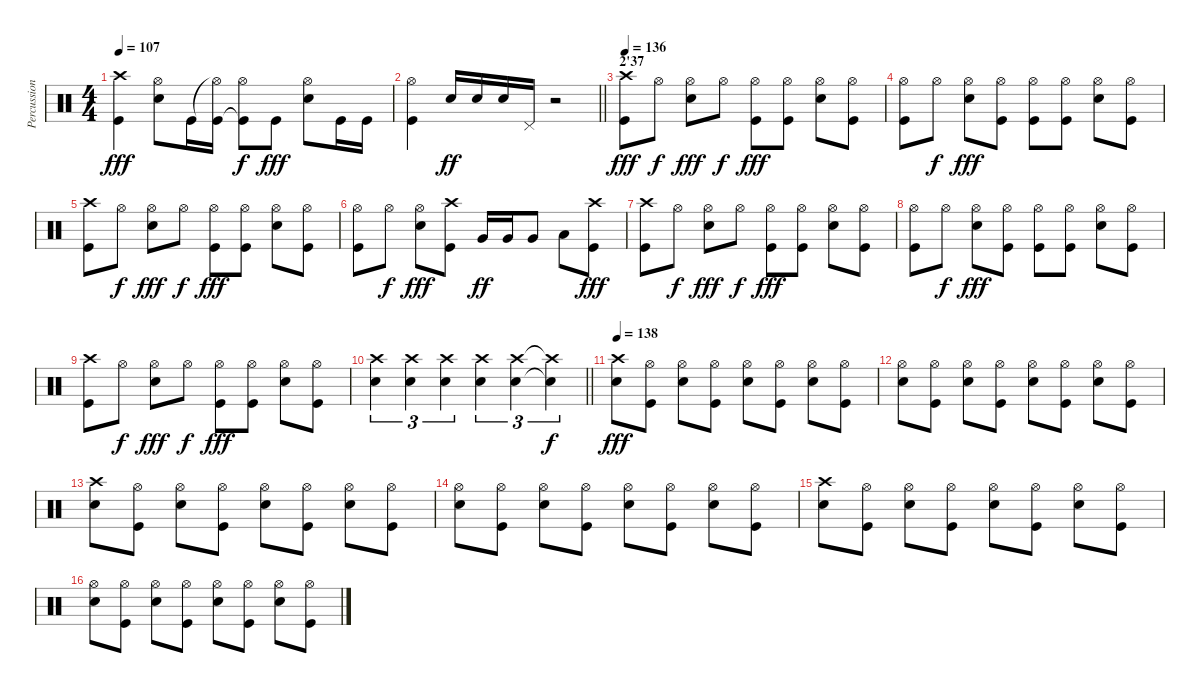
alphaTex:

\track ("Percussions" "Percussion") {instrument percussion}
\staff {score}
\articulation defaults
\ts (4 4)
\tempo 107
\clef neutral
\ks c
("Crash high (hit)" "Kick (hit)").4{dy fff} ("Hi-Hat (open)" "Electric Snare (hit)").8 "Kick (hit)".16 ("Hi-Hat (open)"{t} "Kick (hit)").16 ("Hi-Hat (open)" "Kick (hit)"{t}).8{dy f} "Kick (hit)".8{dy fff} ("Hi-Hat (open)" "Electric Snare (hit)").8 "Kick (hit)".16 "Kick (hit)".16 |
\barLineRight lightlight
("Hi-Hat (open)" "Kick (hit)").4 "Electric Snare (hit)".16{dy ff} "Electric Snare (hit)".16 "Electric Snare (hit)".16 "Pedal Hi-Hat (hit)".16 r.2 |
\section ("" "2'37")
\tempo 136
("Crash high (hit)" "Kick (hit)").8{dy fff} "Hi-Hat (open)".8{dy f} ("Hi-Hat (open)" "Electric Snare (hit)").8{dy fff} "Hi-Hat (open)".8{dy f} ("Hi-Hat (open)" "Kick (hit)").8{dy fff} ("Hi-Hat (open)" "Kick (hit)").8 ("Hi-Hat (open)" "Electric Snare (hit)").8 ("Hi-Hat (open)" "Kick (hit)").8 |
("Hi-Hat (open)" "Kick (hit)").8 "Hi-Hat (open)".8{dy f} ("Hi-Hat (open)" "Electric Snare (hit)").8{dy fff} ("Hi-Hat (open)" "Kick (hit)").8 ("Hi-Hat (open)" "Kick (hit)").8 ("Hi-Hat (open)" "Kick (hit)").8 ("Hi-Hat (open)" "Electric Snare (hit)").8 ("Hi-Hat (open)" "Kick (hit)").8 |
("Crash high (hit)" "Kick (hit)").8 "Hi-Hat (open)".8{dy f} ("Hi-Hat (open)" "Electric Snare (hit)").8{dy fff} "Hi-Hat (open)".8{dy f} ("Hi-Hat (open)" "Kick (hit)").8{dy fff} ("Hi-Hat (open)" "Kick (hit)").8 ("Hi-Hat (open)" "Electric Snare (hit)").8 ("Hi-Hat (open)" "Kick (hit)").8 |
("Hi-Hat (open)" "Kick (hit)").8 "Hi-Hat (open)".8{dy f} ("Hi-Hat (open)" "Electric Snare (hit)").8{dy fff} ("Crash high (hit)" "Kick (hit)").8 "Very Low Tom (hit)".16{dy ff} "Very Low Tom (hit)".16 "Very Low Tom (hit)".8 "Low Floor Tom (hit)".8 ("Crash high (hit)" "Kick (hit)").8{dy fff} |
("Crash high (hit)" "Kick (hit)").8 "Hi-Hat (open)".8{dy f} ("Hi-Hat (open)" "Electric Snare (hit)").8{dy fff} "Hi-Hat (open)".8{dy f} ("Hi-Hat (open)" "Kick (hit)").8{dy fff} ("Hi-Hat (open)" "Kick (hit)").8 ("Hi-Hat (open)" "Electric Snare (hit)").8 ("Hi-Hat (open)" "Kick (hit)").8 |
("Hi-Hat (open)" "Kick (hit)").8 "Hi-Hat (open)".8{dy f} ("Hi-Hat (open)" "Electric Snare (hit)").8{dy fff} ("Hi-Hat (open)" "Kick (hit)").8 ("Hi-Hat (open)" "Kick (hit)").8 ("Hi-Hat (open)" "Kick (hit)").8 ("Hi-Hat (open)" "Electric Snare (hit)").8 ("Hi-Hat (open)" "Kick (hit)").8 |
("Crash high (hit)" "Kick (hit)").8 "Hi-Hat (open)".8{dy f} ("Hi-Hat (open)" "Electric Snare (hit)").8{dy fff} "Hi-Hat (open)".8{dy f} ("Hi-Hat (open)" "Kick (hit)").8{dy fff} ("Hi-Hat (open)" "Kick (hit)").8 ("Hi-Hat (open)" "Electric Snare (hit)").8 ("Hi-Hat (open)" "Kick (hit)").8 |
\barLineRight lightlight
("Crash high (hit)" "Electric Snare (hit)").4{tu (3 2)} ("Crash high (hit)" "Electric Snare (hit)").4{tu (3 2)} ("Crash high (hit)" "Electric Snare (hit)").4{tu (3 2)} ("Crash high (hit)" "Electric Snare (hit)").4{tu (3 2)} ("Crash high (hit)" "Electric Snare (hit)").4{tu (3 2)} ("Crash high (hit)"{t} "Electric Snare (hit)"{t}).4{tu (3 2) dy f} |
\tempo 138
("Crash high (hit)" "Electric Snare (hit)").8{dy fff} ("Hi-Hat (open)" "Kick (hit)").8 ("Hi-Hat (open)" "Electric Snare (hit)").8 ("Hi-Hat (open)" "Kick (hit)").8 ("Hi-Hat (open)" "Electric Snare (hit)").8 ("Hi-Hat (open)" "Kick (hit)").8 ("Hi-Hat (open)" "Electric Snare (hit)").8 ("Hi-Hat (open)" "Kick (hit)").8 |
("Hi-Hat (open)" "Electric Snare (hit)").8 ("Hi-Hat (open)" "Kick (hit)").8 ("Hi-Hat (open)" "Electric Snare (hit)").8 ("Hi-Hat (open)" "Kick (hit)").8 ("Hi-Hat (open)" "Electric Snare (hit)").8 ("Hi-Hat (open)" "Kick (hit)").8 ("Hi-Hat (open)" "Electric Snare (hit)").8 ("Hi-Hat (open)" "Kick (hit)").8 |
("Crash high (hit)" "Electric Snare (hit)").8 ("Hi-Hat (open)" "Kick (hit)").8 ("Hi-Hat (open)" "Electric Snare (hit)").8 ("Hi-Hat (open)" "Kick (hit)").8 ("Hi-Hat (open)" "Electric Snare (hit)").8 ("Hi-Hat (open)" "Kick (hit)").8 ("Hi-Hat (open)" "Electric Snare (hit)").8 ("Hi-Hat (open)" "Kick (hit)").8 |
("Hi-Hat (open)" "Electric Snare (hit)").8 ("Hi-Hat (open)" "Kick (hit)").8 ("Hi-Hat (open)" "Electric Snare (hit)").8 ("Hi-Hat (open)" "Kick (hit)").8 ("Hi-Hat (open)" "Electric Snare (hit)").8 ("Hi-Hat (open)" "Kick (hit)").8 ("Hi-Hat (open)" "Electric Snare (hit)").8 ("Hi-Hat (open)" "Kick (hit)").8 |
("Crash high (hit)" "Electric Snare (hit)").8 ("Hi-Hat (open)" "Kick (hit)").8 ("Hi-Hat (open)" "Electric Snare (hit)").8 ("Hi-Hat (open)" "Kick (hit)").8 ("Hi-Hat (open)" "Electric Snare (hit)").8 ("Hi-Hat (open)" "Kick (hit)").8 ("Hi-Hat (open)" "Electric Snare (hit)").8 ("Hi-Hat (open)" "Kick (hit)").8 |
("Hi-Hat (open)" "Electric Snare (hit)").8 ("Hi-Hat (open)" "Kick (hit)").8 ("Hi-Hat (open)" "Electric Snare (hit)").8 ("Hi-Hat (open)" "Kick (hit)").8 ("Hi-Hat (open)" "Electric Snare (hit)").8 ("Hi-Hat (open)" "Kick (hit)").8 ("Hi-Hat (open)" "Electric Snare (hit)").8 ("Hi-Hat (open)" "Kick (hit)").8
